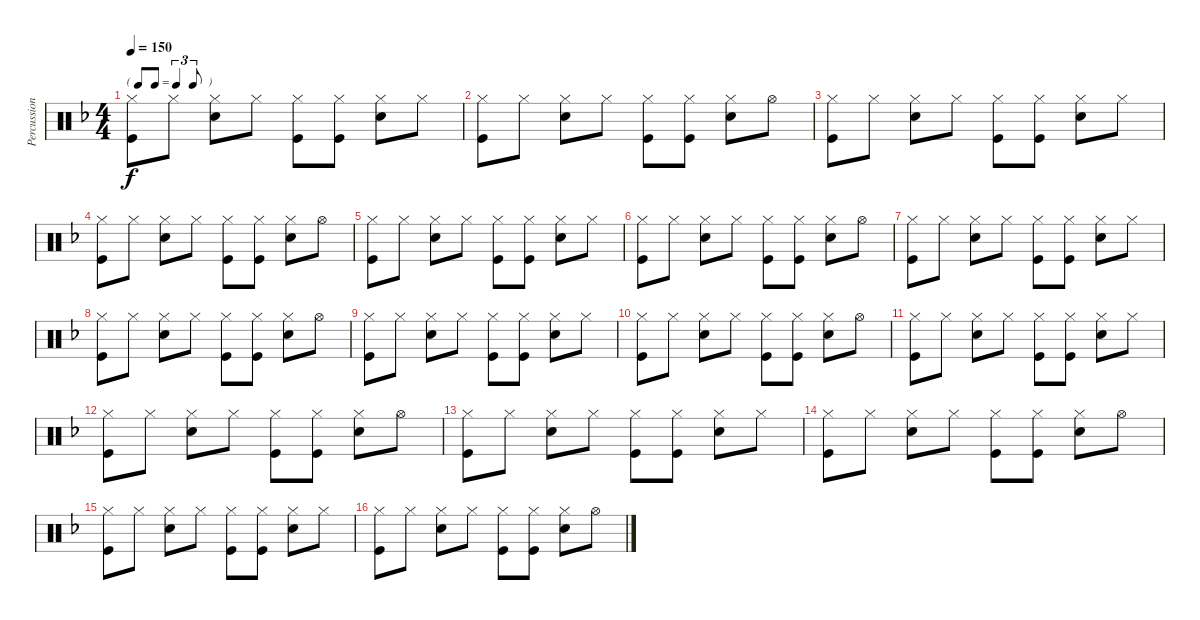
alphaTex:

\track ("Percussion" "Percussion") {instrument percussion}
\staff {score}
\articulation defaults
\ts (4 4)
\tf triplet8th
\tempo 150
\clef neutral
\ks f
("Hi-Hat (closed)" "Kick (hit)").8{dy f} "Hi-Hat (closed)".8 ("Hi-Hat (closed)" "Snare (hit) 2").8 "Hi-Hat (closed)".8 ("Hi-Hat (closed)" "Kick (hit)").8 ("Hi-Hat (closed)" "Kick (hit)").8 ("Hi-Hat (closed)" "Snare (hit) 2").8 "Hi-Hat (closed)".8 |
("Hi-Hat (closed)" "Kick (hit)").8 "Hi-Hat (closed)".8 ("Hi-Hat (closed)" "Snare (hit) 2").8 "Hi-Hat (closed)".8 ("Hi-Hat (closed)" "Kick (hit)").8 ("Hi-Hat (closed)" "Kick (hit)").8 ("Hi-Hat (closed)" "Snare (hit) 2").8 "Hi-Hat (open)".8 |
("Hi-Hat (closed)" "Kick (hit)").8 "Hi-Hat (closed)".8 ("Hi-Hat (closed)" "Snare (hit) 2").8 "Hi-Hat (closed)".8 ("Hi-Hat (closed)" "Kick (hit)").8 ("Hi-Hat (closed)" "Kick (hit)").8 ("Hi-Hat (closed)" "Snare (hit) 2").8 "Hi-Hat (closed)".8 |
("Hi-Hat (closed)" "Kick (hit)").8 "Hi-Hat (closed)".8 ("Hi-Hat (closed)" "Snare (hit) 2").8 "Hi-Hat (closed)".8 ("Hi-Hat (closed)" "Kick (hit)").8 ("Hi-Hat (closed)" "Kick (hit)").8 ("Hi-Hat (closed)" "Snare (hit) 2").8 "Hi-Hat (open)".8 |
("Hi-Hat (closed)" "Kick (hit)").8 "Hi-Hat (closed)".8 ("Hi-Hat (closed)" "Snare (hit) 2").8 "Hi-Hat (closed)".8 ("Hi-Hat (closed)" "Kick (hit)").8 ("Hi-Hat (closed)" "Kick (hit)").8 ("Hi-Hat (closed)" "Snare (hit) 2").8 "Hi-Hat (closed)".8 |
("Hi-Hat (closed)" "Kick (hit)").8 "Hi-Hat (closed)".8 ("Hi-Hat (closed)" "Snare (hit) 2").8 "Hi-Hat (closed)".8 ("Hi-Hat (closed)" "Kick (hit)").8 ("Hi-Hat (closed)" "Kick (hit)").8 ("Hi-Hat (closed)" "Snare (hit) 2").8 "Hi-Hat (open)".8 |
("Hi-Hat (closed)" "Kick (hit)").8 "Hi-Hat (closed)".8 ("Hi-Hat (closed)" "Snare (hit) 2").8 "Hi-Hat (closed)".8 ("Hi-Hat (closed)" "Kick (hit)").8 ("Hi-Hat (closed)" "Kick (hit)").8 ("Hi-Hat (closed)" "Snare (hit) 2").8 "Hi-Hat (closed)".8 |
("Hi-Hat (closed)" "Kick (hit)").8 "Hi-Hat (closed)".8 ("Hi-Hat (closed)" "Snare (hit) 2").8 "Hi-Hat (closed)".8 ("Hi-Hat (closed)" "Kick (hit)").8 ("Hi-Hat (closed)" "Kick (hit)").8 ("Hi-Hat (closed)" "Snare (hit) 2").8 "Hi-Hat (open)".8 |
("Hi-Hat (closed)" "Kick (hit)").8 "Hi-Hat (closed)".8 ("Hi-Hat (closed)" "Snare (hit) 2").8 "Hi-Hat (closed)".8 ("Hi-Hat (closed)" "Kick (hit)").8 ("Hi-Hat (closed)" "Kick (hit)").8 ("Hi-Hat (closed)" "Snare (hit) 2").8 "Hi-Hat (closed)".8 |
("Hi-Hat (closed)" "Kick (hit)").8 "Hi-Hat (closed)".8 ("Hi-Hat (closed)" "Snare (hit) 2").8 "Hi-Hat (closed)".8 ("Hi-Hat (closed)" "Kick (hit)").8 ("Hi-Hat (closed)" "Kick (hit)").8 ("Hi-Hat (closed)" "Snare (hit) 2").8 "Hi-Hat (open)".8 |
("Hi-Hat (closed)" "Kick (hit)").8 "Hi-Hat (closed)".8 ("Hi-Hat (closed)" "Snare (hit) 2").8 "Hi-Hat (closed)".8 ("Hi-Hat (closed)" "Kick (hit)").8 ("Hi-Hat (closed)" "Kick (hit)").8 ("Hi-Hat (closed)" "Snare (hit) 2").8 "Hi-Hat (closed)".8 |
("Hi-Hat (closed)" "Kick (hit)").8 "Hi-Hat (closed)".8 ("Hi-Hat (closed)" "Snare (hit) 2").8 "Hi-Hat (closed)".8 ("Hi-Hat (closed)" "Kick (hit)").8 ("Hi-Hat (closed)" "Kick (hit)").8 ("Hi-Hat (closed)" "Snare (hit) 2").8 "Hi-Hat (open)".8 |
("Hi-Hat (closed)" "Kick (hit)").8 "Hi-Hat (closed)".8 ("Hi-Hat (closed)" "Snare (hit) 2").8 "Hi-Hat (closed)".8 ("Hi-Hat (closed)" "Kick (hit)").8 ("Hi-Hat (closed)" "Kick (hit)").8 ("Hi-Hat (closed)" "Snare (hit) 2").8 "Hi-Hat (closed)".8 |
("Hi-Hat (closed)" "Kick (hit)").8 "Hi-Hat (closed)".8 ("Hi-Hat (closed)" "Snare (hit) 2").8 "Hi-Hat (closed)".8 ("Hi-Hat (closed)" "Kick (hit)").8 ("Hi-Hat (closed)" "Kick (hit)").8 ("Hi-Hat (closed)" "Snare (hit) 2").8 "Hi-Hat (open)".8 |
("Hi-Hat (closed)" "Kick (hit)").8 "Hi-Hat (closed)".8 ("Hi-Hat (closed)" "Snare (hit) 2").8 "Hi-Hat (closed)".8 ("Hi-Hat (closed)" "Kick (hit)").8 ("Hi-Hat (closed)" "Kick (hit)").8 ("Hi-Hat (closed)" "Snare (hit) 2").8 "Hi-Hat (closed)".8 |
("Hi-Hat (closed)" "Kick (hit)").8 "Hi-Hat (closed)".8 ("Hi-Hat (closed)" "Snare (hit) 2").8 "Hi-Hat (closed)".8 ("Hi-Hat (closed)" "Kick (hit)").8 ("Hi-Hat (closed)" "Kick (hit)").8 ("Hi-Hat (closed)" "Snare (hit) 2").8 "Hi-Hat (open)".8
